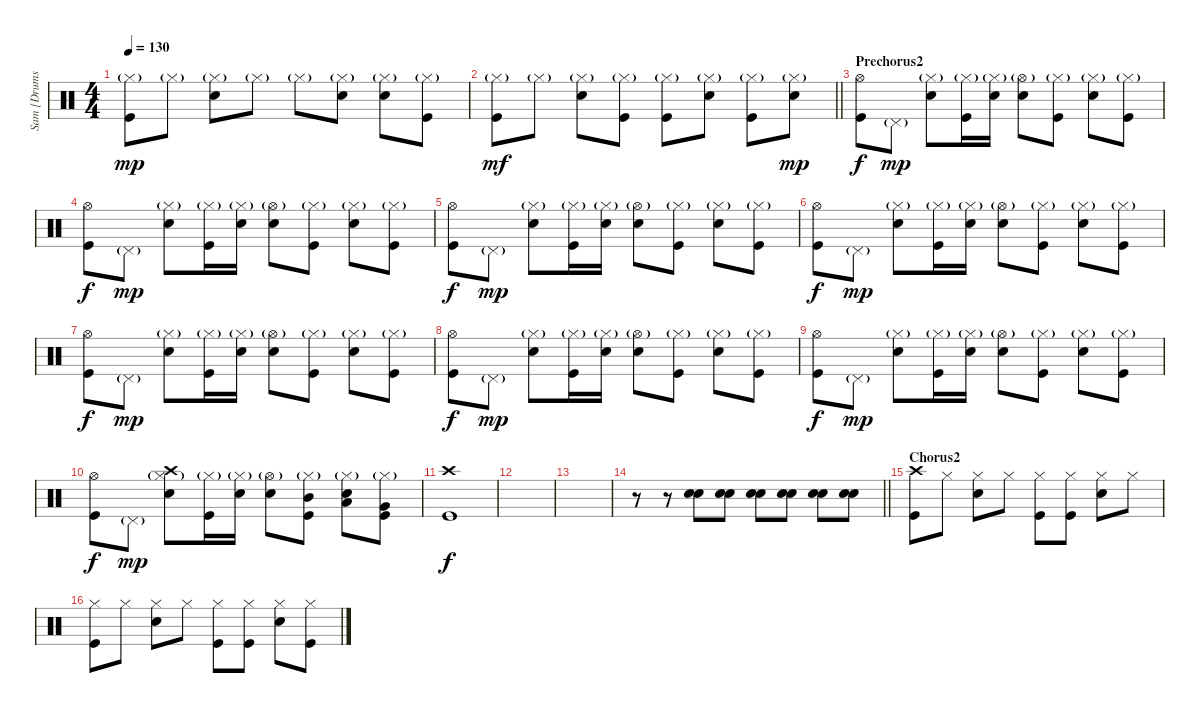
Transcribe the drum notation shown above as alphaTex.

\track ("Sam [Drums]" "Sam [Drums") {instrument percussion}
\staff {score}
\articulation defaults
\ts (4 4)
\tempo 130
\clef neutral
\ks c
("Hi-Hat (closed)"{g} "Kick (hit)").8{dy mp} "Hi-Hat (closed)"{g}.8 ("Hi-Hat (closed)"{g} "Snare (hit) 2").8 "Hi-Hat (closed)"{g}.8 "Hi-Hat (closed)"{g}.8 ("Hi-Hat (closed)"{g} "Snare (hit) 2").8 ("Hi-Hat (closed)"{g} "Snare (hit) 2").8 ("Hi-Hat (closed)"{g} "Kick (hit)").8 |
\barLineRight lightlight
("Hi-Hat (closed)"{g} "Kick (hit)").8{dy mf} "Hi-Hat (closed)"{g}.8 ("Hi-Hat (closed)"{g} "Snare (hit) 2").8 ("Hi-Hat (closed)"{g} "Kick (hit)").8 ("Hi-Hat (closed)"{g} "Kick (hit)").8 ("Hi-Hat (closed)"{g} "Snare (hit) 2").8 ("Hi-Hat (closed)"{g} "Kick (hit)").8 ("Hi-Hat (closed)"{g} "Snare (hit) 2").8{dy mp} |
\section ("" "Prechorus2")
("Hi-Hat (open)" "Kick (hit)").8{dy f} "Pedal Hi-Hat (hit)"{g}.8{dy mp} ("Hi-Hat (closed)"{g} "Snare (hit) 2").8 ("Hi-Hat (closed)"{g} "Kick (hit)").16 ("Hi-Hat (closed)"{g} "Snare (hit) 2").16 ("Hi-Hat (open)"{g} "Snare (hit) 2").8 ("Hi-Hat (closed)"{g} "Kick (hit)").8 ("Hi-Hat (closed)"{g} "Snare (hit) 2").8 ("Hi-Hat (closed)"{g} "Kick (hit)").8 |
("Hi-Hat (open)" "Kick (hit)").8{dy f} "Pedal Hi-Hat (hit)"{g}.8{dy mp} ("Hi-Hat (closed)"{g} "Snare (hit) 2").8 ("Hi-Hat (closed)"{g} "Kick (hit)").16 ("Hi-Hat (closed)"{g} "Snare (hit) 2").16 ("Hi-Hat (open)"{g} "Snare (hit) 2").8 ("Hi-Hat (closed)"{g} "Kick (hit)").8 ("Hi-Hat (closed)"{g} "Snare (hit) 2").8 ("Hi-Hat (closed)"{g} "Kick (hit)").8 |
("Hi-Hat (open)" "Kick (hit)").8{dy f} "Pedal Hi-Hat (hit)"{g}.8{dy mp} ("Hi-Hat (closed)"{g} "Snare (hit) 2").8 ("Hi-Hat (closed)"{g} "Kick (hit)").16 ("Hi-Hat (closed)"{g} "Snare (hit) 2").16 ("Hi-Hat (open)"{g} "Snare (hit) 2").8 ("Hi-Hat (closed)"{g} "Kick (hit)").8 ("Hi-Hat (closed)"{g} "Snare (hit) 2").8 ("Hi-Hat (closed)"{g} "Kick (hit)").8 |
("Hi-Hat (open)" "Kick (hit)").8{dy f} "Pedal Hi-Hat (hit)"{g}.8{dy mp} ("Hi-Hat (closed)"{g} "Snare (hit) 2").8 ("Hi-Hat (closed)"{g} "Kick (hit)").16 ("Hi-Hat (closed)"{g} "Snare (hit) 2").16 ("Hi-Hat (open)"{g} "Snare (hit) 2").8 ("Hi-Hat (closed)"{g} "Kick (hit)").8 ("Hi-Hat (closed)"{g} "Snare (hit) 2").8 ("Hi-Hat (closed)"{g} "Kick (hit)").8 |
("Hi-Hat (open)" "Kick (hit)").8{dy f} "Pedal Hi-Hat (hit)"{g}.8{dy mp} ("Hi-Hat (closed)"{g} "Snare (hit) 2").8 ("Hi-Hat (closed)"{g} "Kick (hit)").16 ("Hi-Hat (closed)"{g} "Snare (hit) 2").16 ("Hi-Hat (open)"{g} "Snare (hit) 2").8 ("Hi-Hat (closed)"{g} "Kick (hit)").8 ("Hi-Hat (closed)"{g} "Snare (hit) 2").8 ("Hi-Hat (closed)"{g} "Kick (hit)").8 |
("Hi-Hat (open)" "Kick (hit)").8{dy f} "Pedal Hi-Hat (hit)"{g}.8{dy mp} ("Hi-Hat (closed)"{g} "Snare (hit) 2").8 ("Hi-Hat (closed)"{g} "Kick (hit)").16 ("Hi-Hat (closed)"{g} "Snare (hit) 2").16 ("Hi-Hat (open)"{g} "Snare (hit) 2").8 ("Hi-Hat (closed)"{g} "Kick (hit)").8 ("Hi-Hat (closed)"{g} "Snare (hit) 2").8 ("Hi-Hat (closed)"{g} "Kick (hit)").8 |
("Hi-Hat (open)" "Kick (hit)").8{dy f} "Pedal Hi-Hat (hit)"{g}.8{dy mp} ("Hi-Hat (closed)"{g} "Snare (hit) 2").8 ("Hi-Hat (closed)"{g} "Kick (hit)").16 ("Hi-Hat (closed)"{g} "Snare (hit) 2").16 ("Hi-Hat (open)"{g} "Snare (hit) 2").8 ("Hi-Hat (closed)"{g} "Kick (hit)").8 ("Hi-Hat (closed)"{g} "Snare (hit) 2").8 ("Hi-Hat (closed)"{g} "Kick (hit)").8 |
("Hi-Hat (open)" "Kick (hit)").8{dy f} "Pedal Hi-Hat (hit)"{g}.8{dy mp} ("Hi-Hat (closed)"{g} "Crash high (hit)" "Snare (hit) 2").8 ("Hi-Hat (closed)"{g} "Kick (hit)").16 ("Hi-Hat (closed)"{g} "Snare (hit) 2").16 ("Hi-Hat (open)"{g} "Snare (hit) 2").8 ("Hi-Hat (closed)"{g} "Mid Tom (hit)" "Kick (hit)").8 ("Hi-Hat (closed)"{g} "Low Tom (hit)" "Snare (hit) 2").8 ("Hi-Hat (closed)"{g} "Very Low Tom (hit)" "Kick (hit)").8 |
("Crash high (hit)" "Kick (hit)").1{dy f} |
|
|
\barLineRight lightlight
r.8 r.8 ("Snare (hit) 2" "Snare (hit) 2").8 ("Snare (hit) 2" "Snare (hit) 2").8 ("Snare (hit) 2" "Snare (hit) 2").8 ("Snare (hit) 2" "Snare (hit) 2").8 ("Snare (hit) 2" "Snare (hit) 2").8 ("Snare (hit) 2" "Snare (hit) 2").8 |
\section ("" "Chorus2")
("Crash high (hit)" "Kick (hit)").8 "Hi-Hat (closed)".8 ("Hi-Hat (closed)" "Snare (hit) 2").8 "Hi-Hat (closed)".8 ("Hi-Hat (closed)" "Kick (hit)").8 ("Hi-Hat (closed)" "Kick (hit)").8 ("Hi-Hat (closed)" "Snare (hit) 2").8 "Hi-Hat (closed)".8 |
("Hi-Hat (closed)" "Kick (hit)").8 "Hi-Hat (closed)".8 ("Hi-Hat (closed)" "Snare (hit) 2").8 "Hi-Hat (closed)".8 ("Hi-Hat (closed)" "Kick (hit)").8 ("Hi-Hat (closed)" "Kick (hit)").8 ("Hi-Hat (closed)" "Snare (hit) 2").8 ("Hi-Hat (closed)" "Kick (hit)").8
